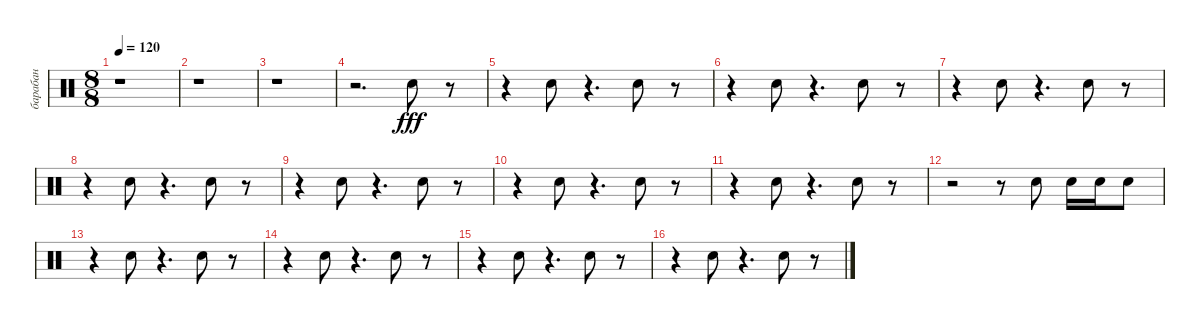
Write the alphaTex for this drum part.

\track ("барабан" "барабан") {instrument percussion}
\staff {score}
\articulation defaults
\ts (8 8)
\tempo 120
\clef neutral
\ks c
r.1{dy fff} |
r.1 |
r.1 |
r.2{d} "Snare (hit) 2".8 r.8 |
r.4 "Snare (hit) 2".8 r.4{d} "Snare (hit) 2".8 r.8 |
r.4 "Snare (hit) 2".8 r.4{d} "Snare (hit) 2".8 r.8 |
r.4 "Snare (hit) 2".8 r.4{d} "Snare (hit) 2".8 r.8 |
r.4 "Snare (hit) 2".8 r.4{d} "Snare (hit) 2".8 r.8 |
r.4 "Snare (hit) 2".8 r.4{d} "Snare (hit) 2".8 r.8 |
r.4 "Snare (hit) 2".8 r.4{d} "Snare (hit) 2".8 r.8 |
r.4 "Snare (hit) 2".8 r.4{d} "Snare (hit) 2".8 r.8 |
r.2 r.8 "Snare (hit) 2".8 "Snare (hit) 2".16 "Snare (hit) 2".16 "Snare (hit) 2".8 |
r.4 "Snare (hit) 2".8 r.4{d} "Snare (hit) 2".8 r.8 |
r.4 "Snare (hit) 2".8 r.4{d} "Snare (hit) 2".8 r.8 |
r.4 "Snare (hit) 2".8 r.4{d} "Snare (hit) 2".8 r.8 |
r.4 "Snare (hit) 2".8 r.4{d} "Snare (hit) 2".8 r.8
